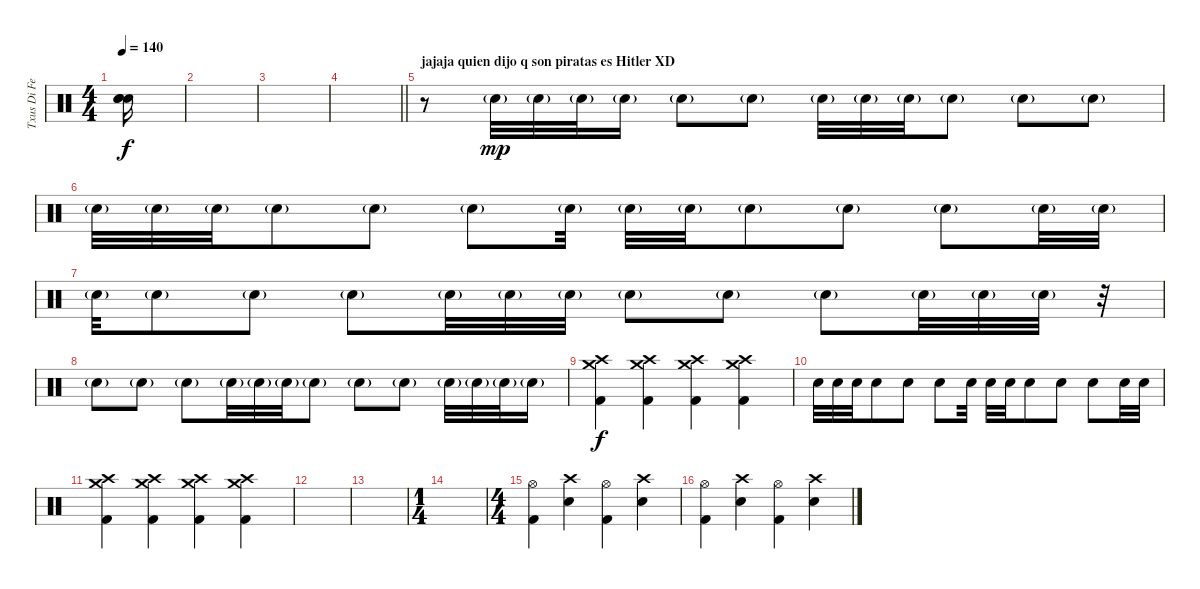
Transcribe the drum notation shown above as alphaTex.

\track ("Txus Di Fellatio" "Txus Di Fe") {instrument percussion}
\staff {score}
\articulation defaults
\ts (4 4)
\tempo 140
\clef neutral
\ks c
("Snare (hit)"{t} "Snare (hit)"{t} "Snare (hit)"{t}).16{dy f} |
|
|
\barLineRight lightlight
|
\section ("" "jajaja quien dijo q son piratas es Hitler XD")
r.8{volume 16} "Snare (hit) 2"{g}.32{dy mp} "Snare (hit) 2"{g}.32 "Snare (hit) 2"{g}.32 "Snare (hit) 2"{g}.16 "Snare (hit) 2"{g}.8 "Snare (hit) 2"{g}.8 "Snare (hit) 2"{g}.32 "Snare (hit) 2"{g}.32 "Snare (hit) 2"{g}.32 "Snare (hit) 2"{g}.8 "Snare (hit) 2"{g}.8 "Snare (hit) 2"{g}.8 |
"Snare (hit) 2"{g}.32 "Snare (hit) 2"{g}.32 "Snare (hit) 2"{g}.32 "Snare (hit) 2"{g}.8 "Snare (hit) 2"{g}.8 "Snare (hit) 2"{g}.8 "Snare (hit) 2"{g}.32 "Snare (hit) 2"{g}.32 "Snare (hit) 2"{g}.32 "Snare (hit) 2"{g}.8 "Snare (hit) 2"{g}.8 "Snare (hit) 2"{g}.8 "Snare (hit) 2"{g}.32 "Snare (hit) 2"{g}.32 |
"Snare (hit) 2"{g}.32 "Snare (hit) 2"{g}.8 "Snare (hit) 2"{g}.8 "Snare (hit) 2"{g}.8 "Snare (hit) 2"{g}.32 "Snare (hit) 2"{g}.32 "Snare (hit) 2"{g}.32 "Snare (hit) 2"{g}.8 "Snare (hit) 2"{g}.8 "Snare (hit) 2"{g}.8 "Snare (hit) 2"{g}.32 "Snare (hit) 2"{g}.32 "Snare (hit) 2"{g}.32 r.32 |
"Snare (hit) 2"{g}.8 "Snare (hit) 2"{g}.8 "Snare (hit) 2"{g}.8 "Snare (hit) 2"{g}.32 "Snare (hit) 2"{g}.32 "Snare (hit) 2"{g}.32 "Snare (hit) 2"{g}.8 "Snare (hit) 2"{g}.8 "Snare (hit) 2"{g}.8 "Snare (hit) 2"{g}.32 "Snare (hit) 2"{g}.32 "Snare (hit) 2"{g}.32 "Snare (hit) 2"{g}.16 |
("Kick (hit) 2" "Crash medium (hit)" "Crash high (hit)").4{dy f} ("Kick (hit) 2" "Crash medium (hit)" "Crash high (hit)").4 ("Kick (hit) 2" "Crash medium (hit)" "Crash high (hit)").4 ("Kick (hit) 2" "Crash medium (hit)" "Crash high (hit)").4 |
"Snare (hit) 2".32 "Snare (hit) 2".32 "Snare (hit) 2".32 "Snare (hit) 2".8 "Snare (hit) 2".8 "Snare (hit) 2".8 "Snare (hit) 2".32 "Snare (hit) 2".32 "Snare (hit) 2".32 "Snare (hit) 2".8 "Snare (hit) 2".8 "Snare (hit) 2".8 "Snare (hit) 2".32 "Snare (hit) 2".32 |
("Kick (hit) 2" "Crash medium (hit)" "Crash high (hit)").4 ("Kick (hit) 2" "Crash medium (hit)" "Crash high (hit)").4 ("Kick (hit) 2" "Crash medium (hit)" "Crash high (hit)").4 ("Kick (hit) 2" "Crash medium (hit)" "Crash high (hit)").4 |
|
|
\ts (1 4)
|
\ts (4 4)
("Hi-Hat (open)" "Kick (hit) 2").4{volume 16} ("Crash high (hit)" "Electric Snare (hit)").4 ("Hi-Hat (open)" "Kick (hit) 2").4 ("Crash high (hit)" "Electric Snare (hit)").4 |
("Hi-Hat (open)" "Kick (hit) 2").4 ("Crash high (hit)" "Electric Snare (hit)").4 ("Hi-Hat (open)" "Kick (hit) 2").4 ("Crash high (hit)" "Electric Snare (hit)").4
